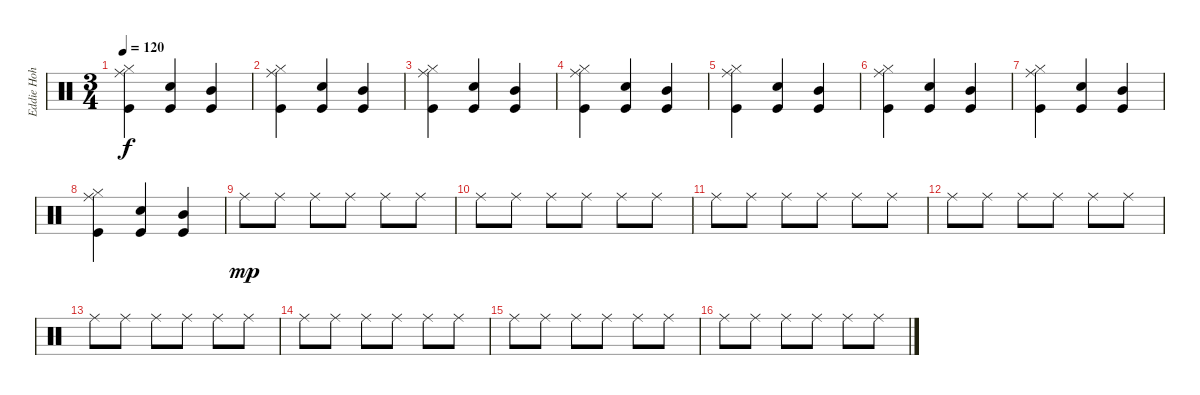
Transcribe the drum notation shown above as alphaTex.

\track ("Eddie Hoh" "Eddie Hoh") {instrument percussion}
\staff {score}
\articulation defaults
\ts (3 4)
\tempo 120
\clef neutral
\ks c
("Ride (middle)" "Hi-Hat (closed)" "Kick (hit)").4{dy f} ("Snare (hit) 2" "Kick (hit)").4 ("Mid Tom (hit)" "Kick (hit)").4 |
("Ride (middle)" "Hi-Hat (closed)" "Kick (hit)").4 ("Snare (hit) 2" "Kick (hit)").4 ("Mid Tom (hit)" "Kick (hit)").4 |
("Ride (middle)" "Hi-Hat (closed)" "Kick (hit)").4 ("Snare (hit) 2" "Kick (hit)").4 ("Mid Tom (hit)" "Kick (hit)").4 |
("Ride (middle)" "Hi-Hat (closed)" "Kick (hit)").4 ("Snare (hit) 2" "Kick (hit)").4 ("Mid Tom (hit)" "Kick (hit)").4 |
("Ride (middle)" "Hi-Hat (closed)" "Kick (hit)").4 ("Snare (hit) 2" "Kick (hit)").4 ("Mid Tom (hit)" "Kick (hit)").4 |
("Ride (middle)" "Hi-Hat (closed)" "Kick (hit)").4 ("Snare (hit) 2" "Kick (hit)").4 ("Mid Tom (hit)" "Kick (hit)").4 |
("Ride (middle)" "Hi-Hat (closed)" "Kick (hit)").4 ("Snare (hit) 2" "Kick (hit)").4 ("Mid Tom (hit)" "Kick (hit)").4 |
("Ride (middle)" "Hi-Hat (closed)" "Kick (hit)").4 ("Snare (hit) 2" "Kick (hit)").4 ("Mid Tom (hit)" "Kick (hit)").4 |
"Ride (middle)".8{dy mp} "Ride (middle)".8 "Ride (middle)".8 "Ride (middle)".8 "Ride (middle)".8 "Ride (middle)".8 |
"Ride (middle)".8 "Ride (middle)".8 "Ride (middle)".8 "Ride (middle)".8 "Ride (middle)".8 "Ride (middle)".8 |
"Ride (middle)".8 "Ride (middle)".8 "Ride (middle)".8 "Ride (middle)".8 "Ride (middle)".8 "Ride (middle)".8 |
"Ride (middle)".8 "Ride (middle)".8 "Ride (middle)".8 "Ride (middle)".8 "Ride (middle)".8 "Ride (middle)".8 |
"Ride (middle)".8 "Ride (middle)".8 "Ride (middle)".8 "Ride (middle)".8 "Ride (middle)".8 "Ride (middle)".8 |
"Ride (middle)".8 "Ride (middle)".8 "Ride (middle)".8 "Ride (middle)".8 "Ride (middle)".8 "Ride (middle)".8 |
"Ride (middle)".8 "Ride (middle)".8 "Ride (middle)".8 "Ride (middle)".8 "Ride (middle)".8 "Ride (middle)".8 |
"Ride (middle)".8 "Ride (middle)".8 "Ride (middle)".8 "Ride (middle)".8 "Ride (middle)".8 "Ride (middle)".8
